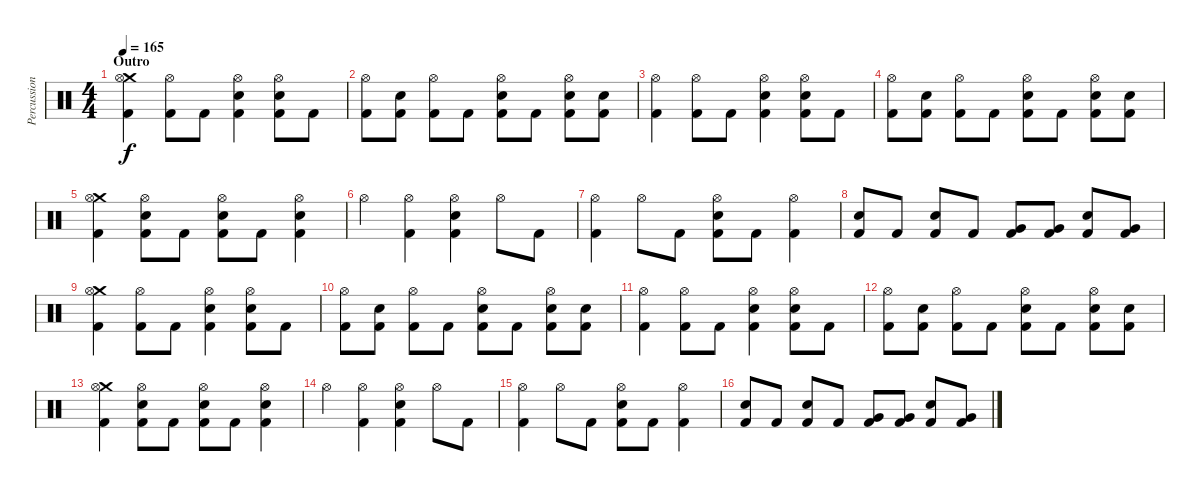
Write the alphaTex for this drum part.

\track ("Percussions" "Percussion") {instrument percussion}
\staff {score}
\articulation defaults
\ts (4 4)
\section ("" "Outro")
\tempo 165
\clef neutral
\ks c
("Crash medium (hit)" "Hi-Hat (open)" "Kick (hit) 2").4{dy f} ("Hi-Hat (open)" "Kick (hit) 2").8 "Kick (hit) 2".8 ("Hi-Hat (open)" "Electric Snare (hit)" "Kick (hit) 2").4 ("Hi-Hat (open)" "Electric Snare (hit)" "Kick (hit) 2").8 "Kick (hit) 2".8 |
("Hi-Hat (open)" "Kick (hit) 2").8 ("Electric Snare (hit)" "Kick (hit) 2").8 ("Hi-Hat (open)" "Kick (hit) 2").8 "Kick (hit) 2".8 ("Hi-Hat (open)" "Electric Snare (hit)" "Kick (hit) 2").8 "Kick (hit) 2".8 ("Hi-Hat (open)" "Electric Snare (hit)" "Kick (hit) 2").8 ("Electric Snare (hit)" "Kick (hit) 2").8 |
("Hi-Hat (open)" "Kick (hit) 2").4 ("Hi-Hat (open)" "Kick (hit) 2").8 "Kick (hit) 2".8 ("Hi-Hat (open)" "Electric Snare (hit)" "Kick (hit) 2").4 ("Hi-Hat (open)" "Electric Snare (hit)" "Kick (hit) 2").8 "Kick (hit) 2".8 |
("Hi-Hat (open)" "Kick (hit) 2").8 ("Electric Snare (hit)" "Kick (hit) 2").8 ("Hi-Hat (open)" "Kick (hit) 2").8 "Kick (hit) 2".8 ("Hi-Hat (open)" "Electric Snare (hit)" "Kick (hit) 2").8 "Kick (hit) 2".8 ("Hi-Hat (open)" "Electric Snare (hit)" "Kick (hit) 2").8 ("Electric Snare (hit)" "Kick (hit) 2").8 |
("Crash medium (hit)" "Hi-Hat (open)" "Kick (hit) 2").4 ("Hi-Hat (open)" "Electric Snare (hit)" "Kick (hit) 2").8 "Kick (hit) 2".8 ("Hi-Hat (open)" "Electric Snare (hit)" "Kick (hit) 2").8 "Kick (hit) 2".8 ("Hi-Hat (open)" "Electric Snare (hit)" "Kick (hit) 2").4 |
"Hi-Hat (open)".4 ("Hi-Hat (open)" "Kick (hit) 2").4 ("Hi-Hat (open)" "Electric Snare (hit)" "Kick (hit) 2").4 "Hi-Hat (open)".8 "Kick (hit) 2".8 |
("Hi-Hat (open)" "Kick (hit) 2").4 "Hi-Hat (open)".8 "Kick (hit) 2".8 ("Hi-Hat (open)" "Electric Snare (hit)" "Kick (hit) 2").8 "Kick (hit) 2".8 ("Hi-Hat (open)" "Kick (hit) 2").4 |
("Electric Snare (hit)" "Kick (hit) 2").8 "Kick (hit) 2".8 ("Electric Snare (hit)" "Kick (hit) 2").8 "Kick (hit) 2".8 ("Very Low Tom (hit)" "Kick (hit) 2").8 ("Very Low Tom (hit)" "Kick (hit) 2").8 ("Electric Snare (hit)" "Kick (hit) 2").8 ("Very Low Tom (hit)" "Kick (hit) 2").8 |
("Crash medium (hit)" "Hi-Hat (open)" "Kick (hit) 2").4 ("Hi-Hat (open)" "Kick (hit) 2").8 "Kick (hit) 2".8 ("Hi-Hat (open)" "Electric Snare (hit)" "Kick (hit) 2").4 ("Hi-Hat (open)" "Electric Snare (hit)" "Kick (hit) 2").8 "Kick (hit) 2".8 |
("Hi-Hat (open)" "Kick (hit) 2").8 ("Electric Snare (hit)" "Kick (hit) 2").8 ("Hi-Hat (open)" "Kick (hit) 2").8 "Kick (hit) 2".8 ("Hi-Hat (open)" "Electric Snare (hit)" "Kick (hit) 2").8 "Kick (hit) 2".8 ("Hi-Hat (open)" "Electric Snare (hit)" "Kick (hit) 2").8 ("Electric Snare (hit)" "Kick (hit) 2").8 |
("Hi-Hat (open)" "Kick (hit) 2").4 ("Hi-Hat (open)" "Kick (hit) 2").8 "Kick (hit) 2".8 ("Hi-Hat (open)" "Electric Snare (hit)" "Kick (hit) 2").4 ("Hi-Hat (open)" "Electric Snare (hit)" "Kick (hit) 2").8 "Kick (hit) 2".8 |
("Hi-Hat (open)" "Kick (hit) 2").8 ("Electric Snare (hit)" "Kick (hit) 2").8 ("Hi-Hat (open)" "Kick (hit) 2").8 "Kick (hit) 2".8 ("Hi-Hat (open)" "Electric Snare (hit)" "Kick (hit) 2").8 "Kick (hit) 2".8 ("Hi-Hat (open)" "Electric Snare (hit)" "Kick (hit) 2").8 ("Electric Snare (hit)" "Kick (hit) 2").8 |
("Crash medium (hit)" "Hi-Hat (open)" "Kick (hit) 2").4 ("Hi-Hat (open)" "Electric Snare (hit)" "Kick (hit) 2").8 "Kick (hit) 2".8 ("Hi-Hat (open)" "Electric Snare (hit)" "Kick (hit) 2").8 "Kick (hit) 2".8 ("Hi-Hat (open)" "Electric Snare (hit)" "Kick (hit) 2").4 |
"Hi-Hat (open)".4 ("Hi-Hat (open)" "Kick (hit) 2").4 ("Hi-Hat (open)" "Electric Snare (hit)" "Kick (hit) 2").4 "Hi-Hat (open)".8 "Kick (hit) 2".8 |
("Hi-Hat (open)" "Kick (hit) 2").4 "Hi-Hat (open)".8 "Kick (hit) 2".8 ("Hi-Hat (open)" "Electric Snare (hit)" "Kick (hit) 2").8 "Kick (hit) 2".8 ("Hi-Hat (open)" "Kick (hit) 2").4 |
("Electric Snare (hit)" "Kick (hit) 2").8 "Kick (hit) 2".8 ("Electric Snare (hit)" "Kick (hit) 2").8 "Kick (hit) 2".8 ("Very Low Tom (hit)" "Kick (hit) 2").8 ("Very Low Tom (hit)" "Kick (hit) 2").8 ("Electric Snare (hit)" "Kick (hit) 2").8 ("Very Low Tom (hit)" "Kick (hit) 2").8
